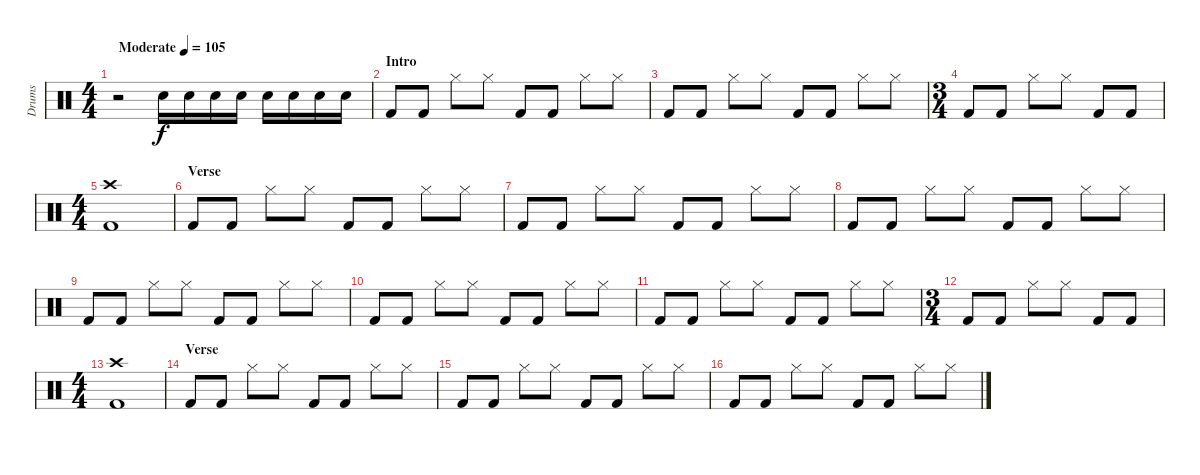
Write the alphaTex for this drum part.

\track ("Drums" "Drums") {instrument percussion}
\staff {score}
\articulation defaults
\ts (4 4)
\tempo (105 "Moderate")
\clef neutral
\ks c
r.2{dy f} "Snare (hit) 2".16 "Snare (hit) 2".16 "Snare (hit) 2".16 "Snare (hit) 2".16 "Snare (hit) 2".16 "Snare (hit) 2".16 "Snare (hit) 2".16 "Snare (hit) 2".16 |
\section ("" "Intro")
"Kick (hit) 2".8 "Kick (hit) 2".8 "Hi-Hat (closed)".8 "Hi-Hat (closed)".8 "Kick (hit) 2".8 "Kick (hit) 2".8 "Hi-Hat (closed)".8 "Hi-Hat (closed)".8 |
"Kick (hit) 2".8 "Kick (hit) 2".8 "Hi-Hat (closed)".8 "Hi-Hat (closed)".8 "Kick (hit) 2".8 "Kick (hit) 2".8 "Hi-Hat (closed)".8 "Hi-Hat (closed)".8 |
\ts (3 4)
"Kick (hit) 2".8 "Kick (hit) 2".8 "Hi-Hat (closed)".8 "Hi-Hat (closed)".8 "Kick (hit) 2".8 "Kick (hit) 2".8 |
\ts (4 4)
("Crash high (hit)" "Kick (hit) 2").1 |
\section ("" "Verse")
"Kick (hit) 2".8 "Kick (hit) 2".8 "Hi-Hat (closed)".8 "Hi-Hat (closed)".8 "Kick (hit) 2".8 "Kick (hit) 2".8 "Hi-Hat (closed)".8 "Hi-Hat (closed)".8 |
"Kick (hit) 2".8 "Kick (hit) 2".8 "Hi-Hat (closed)".8 "Hi-Hat (closed)".8 "Kick (hit) 2".8 "Kick (hit) 2".8 "Hi-Hat (closed)".8 "Hi-Hat (closed)".8 |
"Kick (hit) 2".8 "Kick (hit) 2".8 "Hi-Hat (closed)".8 "Hi-Hat (closed)".8 "Kick (hit) 2".8 "Kick (hit) 2".8 "Hi-Hat (closed)".8 "Hi-Hat (closed)".8 |
"Kick (hit) 2".8 "Kick (hit) 2".8 "Hi-Hat (closed)".8 "Hi-Hat (closed)".8 "Kick (hit) 2".8 "Kick (hit) 2".8 "Hi-Hat (closed)".8 "Hi-Hat (closed)".8 |
"Kick (hit) 2".8 "Kick (hit) 2".8 "Hi-Hat (closed)".8 "Hi-Hat (closed)".8 "Kick (hit) 2".8 "Kick (hit) 2".8 "Hi-Hat (closed)".8 "Hi-Hat (closed)".8 |
"Kick (hit) 2".8 "Kick (hit) 2".8 "Hi-Hat (closed)".8 "Hi-Hat (closed)".8 "Kick (hit) 2".8 "Kick (hit) 2".8 "Hi-Hat (closed)".8 "Hi-Hat (closed)".8 |
\ts (3 4)
"Kick (hit) 2".8 "Kick (hit) 2".8 "Hi-Hat (closed)".8 "Hi-Hat (closed)".8 "Kick (hit) 2".8 "Kick (hit) 2".8 |
\ts (4 4)
("Crash high (hit)" "Kick (hit) 2").1 |
\section ("" "Verse")
"Kick (hit) 2".8 "Kick (hit) 2".8 "Hi-Hat (closed)".8 "Hi-Hat (closed)".8 "Kick (hit) 2".8 "Kick (hit) 2".8 "Hi-Hat (closed)".8 "Hi-Hat (closed)".8 |
"Kick (hit) 2".8 "Kick (hit) 2".8 "Hi-Hat (closed)".8 "Hi-Hat (closed)".8 "Kick (hit) 2".8 "Kick (hit) 2".8 "Hi-Hat (closed)".8 "Hi-Hat (closed)".8 |
"Kick (hit) 2".8 "Kick (hit) 2".8 "Hi-Hat (closed)".8 "Hi-Hat (closed)".8 "Kick (hit) 2".8 "Kick (hit) 2".8 "Hi-Hat (closed)".8 "Hi-Hat (closed)".8
